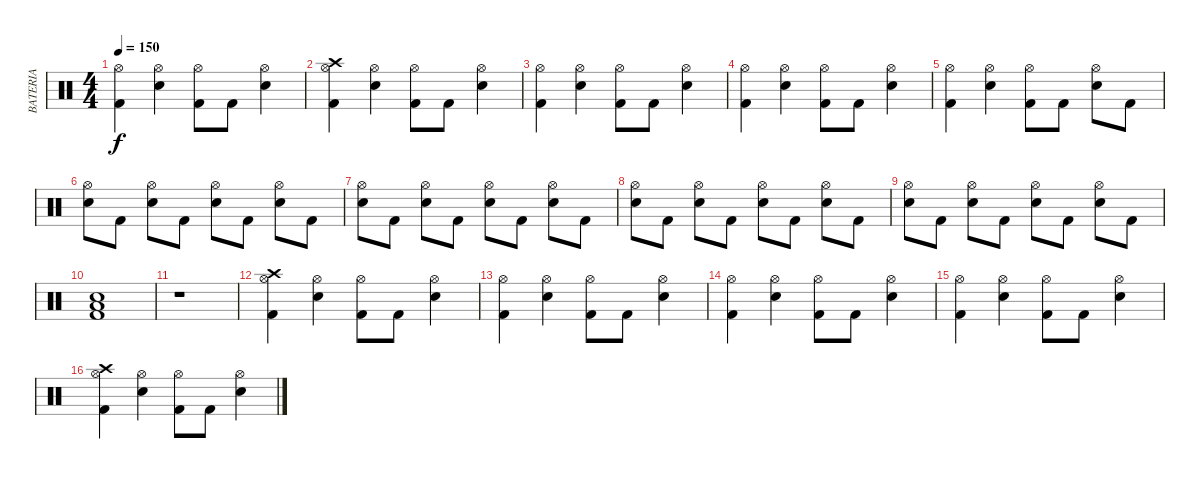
\track ("BATERIA" "BATERIA") {instrument percussion}
\staff {score}
\articulation defaults
\ts (4 4)
\tempo 150
\clef neutral
\ks c
("Hi-Hat (open)" "Kick (hit) 2").4{dy f} ("Hi-Hat (open)" "Snare (hit) 2").4 ("Hi-Hat (open)" "Kick (hit) 2").8 "Kick (hit) 2".8 ("Hi-Hat (open)" "Snare (hit) 2").4 |
("Crash high (hit)" "Hi-Hat (open)" "Kick (hit) 2").4 ("Hi-Hat (open)" "Snare (hit) 2").4 ("Hi-Hat (open)" "Kick (hit) 2").8 "Kick (hit) 2".8 ("Hi-Hat (open)" "Snare (hit) 2").4 |
("Hi-Hat (open)" "Kick (hit) 2").4 ("Hi-Hat (open)" "Snare (hit) 2").4 ("Hi-Hat (open)" "Kick (hit) 2").8 "Kick (hit) 2".8 ("Hi-Hat (open)" "Snare (hit) 2").4 |
("Hi-Hat (open)" "Kick (hit) 2").4 ("Hi-Hat (open)" "Snare (hit) 2").4 ("Hi-Hat (open)" "Kick (hit) 2").8 "Kick (hit) 2".8 ("Hi-Hat (open)" "Snare (hit) 2").4 |
("Hi-Hat (open)" "Kick (hit) 2").4 ("Hi-Hat (open)" "Snare (hit) 2").4 ("Hi-Hat (open)" "Kick (hit) 2").8 "Kick (hit) 2".8 ("Hi-Hat (open)" "Snare (hit) 2").8 "Kick (hit) 2".8 |
("Hi-Hat (open)" "Snare (hit) 2").8 "Kick (hit) 2".8 ("Hi-Hat (open)" "Snare (hit) 2").8 "Kick (hit) 2".8 ("Hi-Hat (open)" "Snare (hit) 2").8 "Kick (hit) 2".8 ("Hi-Hat (open)" "Snare (hit) 2").8 "Kick (hit) 2".8 |
("Hi-Hat (open)" "Snare (hit) 2").8 "Kick (hit) 2".8 ("Hi-Hat (open)" "Snare (hit) 2").8 "Kick (hit) 2".8 ("Hi-Hat (open)" "Snare (hit) 2").8 "Kick (hit) 2".8 ("Hi-Hat (open)" "Snare (hit) 2").8 "Kick (hit) 2".8 |
("Hi-Hat (open)" "Snare (hit) 2").8 "Kick (hit) 2".8 ("Hi-Hat (open)" "Snare (hit) 2").8 "Kick (hit) 2".8 ("Hi-Hat (open)" "Snare (hit) 2").8 "Kick (hit) 2".8 ("Hi-Hat (open)" "Snare (hit) 2").8 "Kick (hit) 2".8 |
("Hi-Hat (open)" "Snare (hit) 2").8 "Kick (hit) 2".8 ("Hi-Hat (open)" "Snare (hit) 2").8 "Kick (hit) 2".8 ("Hi-Hat (open)" "Snare (hit) 2").8 "Kick (hit) 2".8 ("Hi-Hat (open)" "Snare (hit) 2").8 "Kick (hit) 2".8 |
("Snare (hit) 2" "Low Floor Tom (hit)" "Kick (hit) 2").1 |
r.1 |
("Crash high (hit)" "Hi-Hat (open)" "Kick (hit) 2").4 ("Hi-Hat (open)" "Snare (hit) 2").4 ("Hi-Hat (open)" "Kick (hit) 2").8 "Kick (hit) 2".8 ("Hi-Hat (open)" "Snare (hit) 2").4 |
("Hi-Hat (open)" "Kick (hit) 2").4 ("Hi-Hat (open)" "Snare (hit) 2").4 ("Hi-Hat (open)" "Kick (hit) 2").8 "Kick (hit) 2".8 ("Hi-Hat (open)" "Snare (hit) 2").4 |
("Hi-Hat (open)" "Kick (hit) 2").4 ("Hi-Hat (open)" "Snare (hit) 2").4 ("Hi-Hat (open)" "Kick (hit) 2").8 "Kick (hit) 2".8 ("Hi-Hat (open)" "Snare (hit) 2").4 |
("Hi-Hat (open)" "Kick (hit) 2").4 ("Hi-Hat (open)" "Snare (hit) 2").4 ("Hi-Hat (open)" "Kick (hit) 2").8 "Kick (hit) 2".8 ("Hi-Hat (open)" "Snare (hit) 2").4 |
("Crash high (hit)" "Hi-Hat (open)" "Kick (hit) 2").4 ("Hi-Hat (open)" "Snare (hit) 2").4 ("Hi-Hat (open)" "Kick (hit) 2").8 "Kick (hit) 2".8 ("Hi-Hat (open)" "Snare (hit) 2").4
